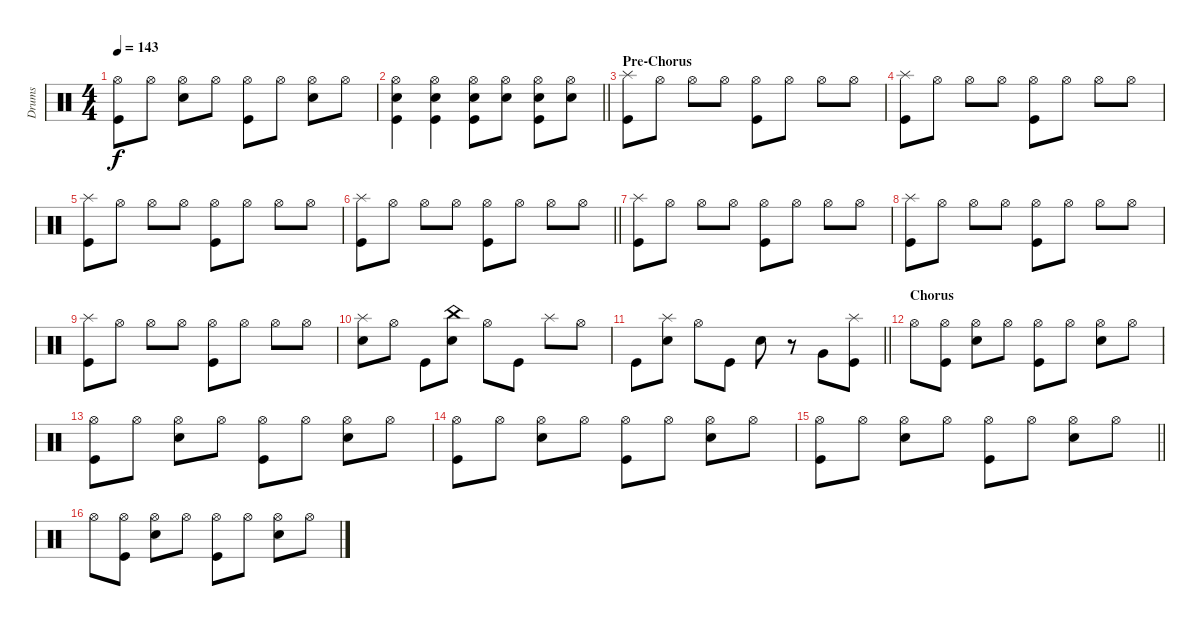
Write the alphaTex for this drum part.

\track ("Drums" "Drums") {instrument percussion}
\staff
\articulation defaults
\ts (4 4)
\tempo 143
\clef neutral
\ks c
("Hi-Hat (open)" "Kick (hit)").8{dy f} "Hi-Hat (open)".8 ("Hi-Hat (open)" "Snare (hit) 2").8 "Hi-Hat (open)".8 ("Hi-Hat (open)" "Kick (hit)").8 "Hi-Hat (open)".8 ("Hi-Hat (open)" "Snare (hit) 2").8 "Hi-Hat (open)".8 |
\barLineRight lightlight
("Hi-Hat (open)" "Snare (hit) 2" "Kick (hit)").4 ("Hi-Hat (open)" "Snare (hit) 2" "Kick (hit)").4 ("Hi-Hat (open)" "Snare (hit) 2" "Kick (hit)").8 ("Hi-Hat (open)" "Snare (hit) 2").8 ("Hi-Hat (open)" "Snare (hit) 2" "Kick (hit)").8 ("Hi-Hat (open)" "Snare (hit) 2").8 |
\section ("" "Pre-Chorus")
("Splash (hit)" "Kick (hit)").8 "Hi-Hat (open)".8 "Hi-Hat (open)".8 "Hi-Hat (open)".8 ("Hi-Hat (open)" "Kick (hit)").8 "Hi-Hat (open)".8 "Hi-Hat (open)".8 "Hi-Hat (open)".8 |
("Splash (hit)" "Kick (hit)").8 "Hi-Hat (open)".8 "Hi-Hat (open)".8 "Hi-Hat (open)".8 ("Hi-Hat (open)" "Kick (hit)").8 "Hi-Hat (open)".8 "Hi-Hat (open)".8 "Hi-Hat (open)".8 |
("Splash (hit)" "Kick (hit)").8 "Hi-Hat (open)".8 "Hi-Hat (open)".8 "Hi-Hat (open)".8 ("Hi-Hat (open)" "Kick (hit)").8 "Hi-Hat (open)".8 "Hi-Hat (open)".8 "Hi-Hat (open)".8 |
\barLineRight lightlight
("Splash (hit)" "Kick (hit)").8 "Hi-Hat (open)".8 "Hi-Hat (open)".8 "Hi-Hat (open)".8 ("Hi-Hat (open)" "Kick (hit)").8 "Hi-Hat (open)".8 "Hi-Hat (open)".8 "Hi-Hat (open)".8 |
("Splash (hit)" "Kick (hit)").8 "Hi-Hat (open)".8 "Hi-Hat (open)".8 "Hi-Hat (open)".8 ("Hi-Hat (open)" "Kick (hit)").8 "Hi-Hat (open)".8 "Hi-Hat (open)".8 "Hi-Hat (open)".8 |
("Splash (hit)" "Kick (hit)").8 "Hi-Hat (open)".8 "Hi-Hat (open)".8 "Hi-Hat (open)".8 ("Hi-Hat (open)" "Kick (hit)").8 "Hi-Hat (open)".8 "Hi-Hat (open)".8 "Hi-Hat (open)".8 |
("Splash (hit)" "Kick (hit)").8 "Hi-Hat (open)".8 "Hi-Hat (open)".8 "Hi-Hat (open)".8 ("Hi-Hat (open)" "Kick (hit)").8 "Hi-Hat (open)".8 "Hi-Hat (open)".8 "Hi-Hat (open)".8 |
("Splash (hit)" "Snare (hit) 2").8 "Hi-Hat (open)".8 "Kick (hit)".8 ("China (hit)" "Snare (hit) 2").8 "Hi-Hat (open)".8 "Kick (hit)".8 "Splash (hit)".8 "Hi-Hat (open)".8 |
\barLineRight lightlight "Kick (hit)".8
("Splash (hit)" "Snare (hit) 2").8 "Hi-Hat (open)".8 "Kick (hit)".8 "Snare (hit) 2".8 r.8 "Very Low Tom (hit)".8 ("Splash (hit)" "Kick (hit)").8 |
\section ("" "Chorus")
"Hi-Hat (open)".8 ("Hi-Hat (open)" "Kick (hit)").8 ("Hi-Hat (open)" "Snare (hit) 2").8 "Hi-Hat (open)".8 ("Hi-Hat (open)" "Kick (hit)").8 "Hi-Hat (open)".8 ("Hi-Hat (open)" "Snare (hit) 2").8 "Hi-Hat (open)".8 |
("Hi-Hat (open)" "Kick (hit)").8 "Hi-Hat (open)".8 ("Hi-Hat (open)" "Snare (hit) 2").8 "Hi-Hat (open)".8 ("Hi-Hat (open)" "Kick (hit)").8 "Hi-Hat (open)".8 ("Hi-Hat (open)" "Snare (hit) 2").8 "Hi-Hat (open)".8 |
("Hi-Hat (open)" "Kick (hit)").8 "Hi-Hat (open)".8 ("Hi-Hat (open)" "Snare (hit) 2").8 "Hi-Hat (open)".8 ("Hi-Hat (open)" "Kick (hit)").8 "Hi-Hat (open)".8 ("Hi-Hat (open)" "Snare (hit) 2").8 "Hi-Hat (open)".8 |
\barLineRight lightlight
("Hi-Hat (open)" "Kick (hit)").8 "Hi-Hat (open)".8 ("Hi-Hat (open)" "Snare (hit) 2").8 "Hi-Hat (open)".8 ("Hi-Hat (open)" "Kick (hit)").8 "Hi-Hat (open)".8 ("Hi-Hat (open)" "Snare (hit) 2").8 "Hi-Hat (open)".8 |
"Hi-Hat (open)".8 ("Hi-Hat (open)" "Kick (hit)").8 ("Hi-Hat (open)" "Snare (hit) 2").8 "Hi-Hat (open)".8 ("Hi-Hat (open)" "Kick (hit)").8 "Hi-Hat (open)".8 ("Hi-Hat (open)" "Snare (hit) 2").8 "Hi-Hat (open)".8
